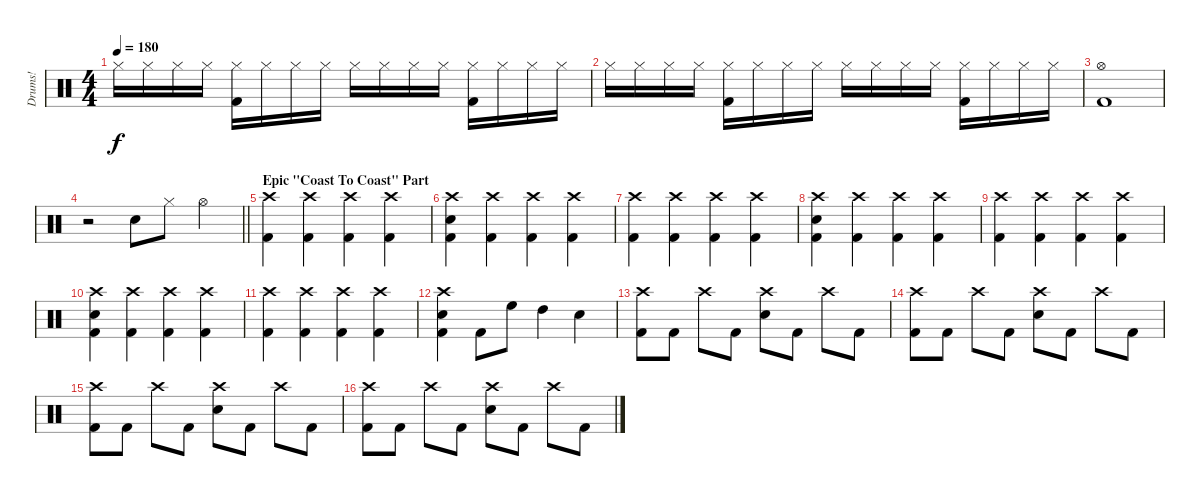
\track ("Drums!" "Drums!") {instrument percussion}
\staff {score}
\articulation defaults
\ts (4 4)
\tempo 180
\clef neutral
\ks c "Hi-Hat (closed)".16{dy f} "Hi-Hat (closed)".16 "Hi-Hat (closed)".16 "Hi-Hat (closed)".16
("Hi-Hat (closed)" "Kick (hit) 2").16 "Hi-Hat (closed)".16 "Hi-Hat (closed)".16 "Hi-Hat (closed)".16 "Hi-Hat (closed)".16 "Hi-Hat (closed)".16 "Hi-Hat (closed)".16 "Hi-Hat (closed)".16 ("Hi-Hat (closed)" "Kick (hit) 2").16 "Hi-Hat (closed)".16 "Hi-Hat (closed)".16 "Hi-Hat (closed)".16 |
"Hi-Hat (closed)".16 "Hi-Hat (closed)".16 "Hi-Hat (closed)".16 "Hi-Hat (closed)".16 ("Hi-Hat (closed)" "Kick (hit) 2").16 "Hi-Hat (closed)".16 "Hi-Hat (closed)".16 "Hi-Hat (closed)".16 "Hi-Hat (closed)".16 "Hi-Hat (closed)".16 "Hi-Hat (closed)".16 "Hi-Hat (closed)".16 ("Hi-Hat (closed)" "Kick (hit) 2").16 "Hi-Hat (closed)".16 "Hi-Hat (closed)".16 "Hi-Hat (closed)".16 |
("Hi-Hat (open)" "Kick (hit) 2").1 |
\barLineRight lightlight
r.2 "Electric Snare (hit)".8 "Hi-Hat (closed)".8 "Hi-Hat (open)".4 |
\section ("" "Epic \"Coast To Coast\" Part")
("Crash high (hit)" "Kick (hit) 2").4 ("Crash high (hit)" "Kick (hit) 2").4 ("Crash high (hit)" "Kick (hit) 2").4 ("Crash high (hit)" "Kick (hit) 2").4 |
("Crash high (hit)" "Electric Snare (hit)" "Kick (hit) 2").4 ("Crash high (hit)" "Kick (hit) 2").4 ("Crash high (hit)" "Kick (hit) 2").4 ("Crash high (hit)" "Kick (hit) 2").4 |
("Crash high (hit)" "Kick (hit) 2").4 ("Crash high (hit)" "Kick (hit) 2").4 ("Crash high (hit)" "Kick (hit) 2").4 ("Crash high (hit)" "Kick (hit) 2").4 |
("Crash high (hit)" "Electric Snare (hit)" "Kick (hit) 2").4 ("Crash high (hit)" "Kick (hit) 2").4 ("Crash high (hit)" "Kick (hit) 2").4 ("Crash high (hit)" "Kick (hit) 2").4 |
("Crash high (hit)" "Kick (hit) 2").4 ("Crash high (hit)" "Kick (hit) 2").4 ("Crash high (hit)" "Kick (hit) 2").4 ("Crash high (hit)" "Kick (hit) 2").4 |
("Crash high (hit)" "Electric Snare (hit)" "Kick (hit) 2").4 ("Crash high (hit)" "Kick (hit) 2").4 ("Crash high (hit)" "Kick (hit) 2").4 ("Crash high (hit)" "Kick (hit) 2").4 |
("Crash high (hit)" "Kick (hit) 2").4 ("Crash high (hit)" "Kick (hit) 2").4 ("Crash high (hit)" "Kick (hit) 2").4 ("Crash high (hit)" "Kick (hit) 2").4 |
("Crash high (hit)" "Electric Snare (hit)" "Kick (hit) 2").4 "Kick (hit) 2".8 "High Floor Tom (hit)".8 "High Tom (hit)".4 "Electric Snare (hit)".4 |
("Crash high (hit)" "Kick (hit) 2").8 "Kick (hit) 2".8 "Crash high (hit)".8 "Kick (hit) 2".8 ("Crash high (hit)" "Electric Snare (hit)").8 "Kick (hit) 2".8 "Crash high (hit)".8 "Kick (hit) 2".8 |
("Crash high (hit)" "Kick (hit) 2").8 "Kick (hit) 2".8 "Crash high (hit)".8 "Kick (hit) 2".8 ("Crash high (hit)" "Electric Snare (hit)").8 "Kick (hit) 2".8 "Crash high (hit)".8 "Kick (hit) 2".8 |
("Crash high (hit)" "Kick (hit) 2").8 "Kick (hit) 2".8 "Crash high (hit)".8 "Kick (hit) 2".8 ("Crash high (hit)" "Electric Snare (hit)").8 "Kick (hit) 2".8 "Crash high (hit)".8 "Kick (hit) 2".8 |
("Crash high (hit)" "Kick (hit) 2").8 "Kick (hit) 2".8 "Crash high (hit)".8 "Kick (hit) 2".8 ("Crash high (hit)" "Electric Snare (hit)").8 "Kick (hit) 2".8 "Crash high (hit)".8 "Kick (hit) 2".8
